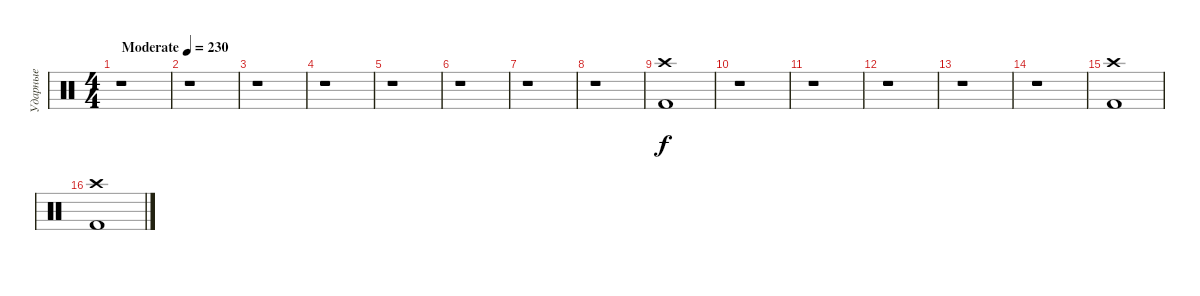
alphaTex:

\track ("Ударные" "Ударные") {instrument percussion}
\staff {score}
\articulation defaults
\ts (4 4)
\tempo (230 "Moderate")
\clef neutral
\ks c
r.1{dy f} |
r.1 |
r.1 |
r.1 |
r.1 |
r.1 |
r.1 |
r.1 |
("Kick (hit) 2" "Crash high (hit)").1 |
r.1 |
r.1 |
r.1 |
r.1 |
r.1 |
("Kick (hit) 2" "Crash high (hit)").1 |
("Kick (hit) 2" "Crash high (hit)").1
